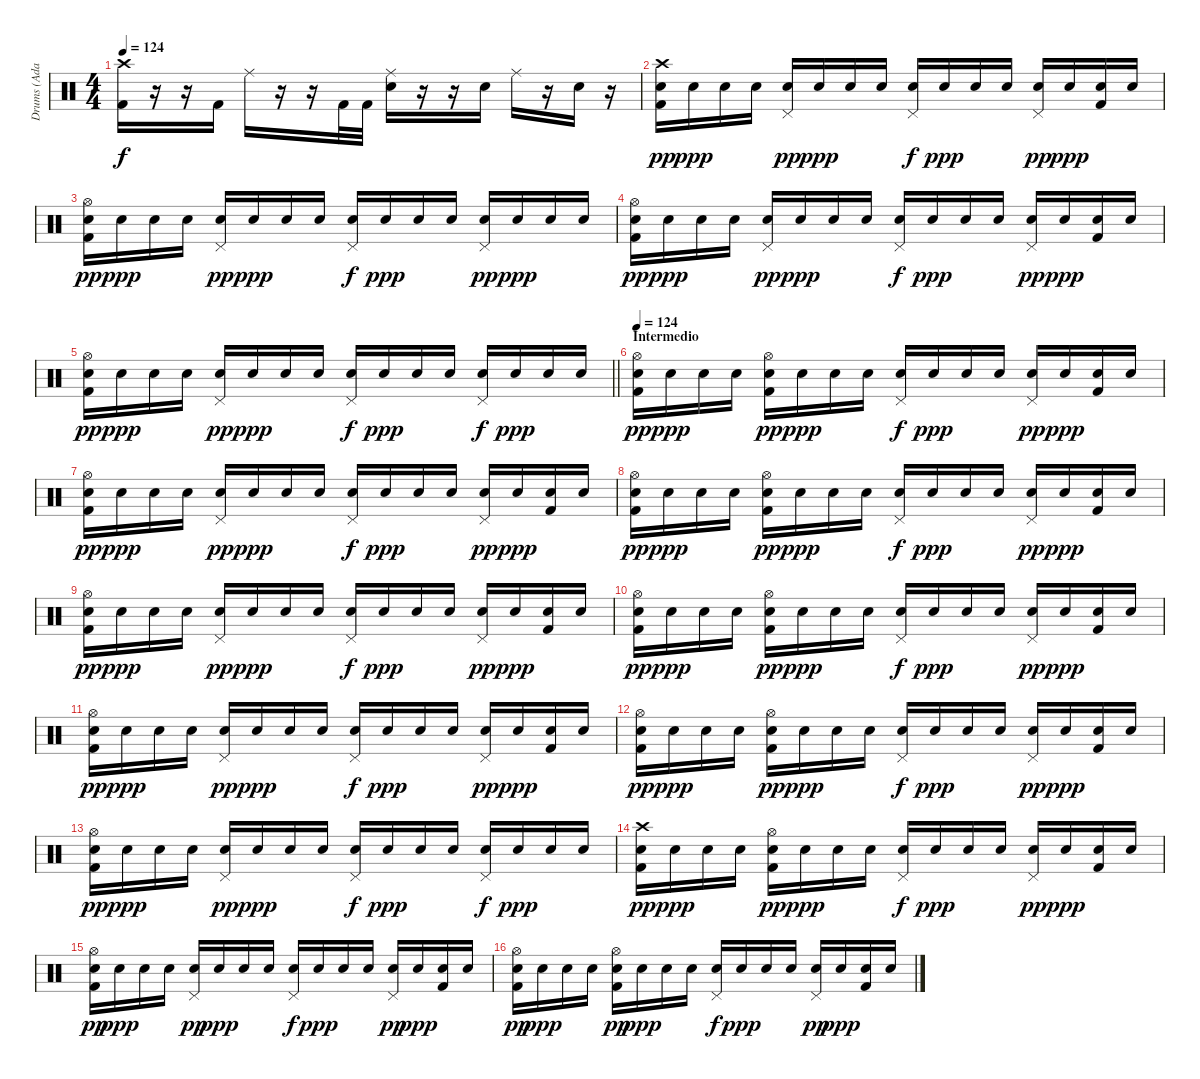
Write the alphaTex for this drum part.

\track ("Drums (Adam Morgan)" "Drums (Ada") {instrument percussion}
\staff {score}
\articulation defaults
\ts (4 4)
\tempo 124
\clef neutral
\ks c
("Crash high (hit)" "Kick (hit) 2").16{dy f} r.16 r.16 "Kick (hit) 2".16 "Ride (middle)".16 r.16 r.16 "Kick (hit) 2".32 "Kick (hit) 2".32 ("Ride (middle)" "Snare (hit) 2").16 r.16 r.16 "Snare (hit) 2".16 "Ride (middle)".16 r.16 "Snare (hit) 2".16 r.16 |
("Crash high (hit)" "Snare (hit) 2" "Kick (hit) 2").16{dy pp} "Snare (hit) 2".16{dy ppp} "Snare (hit) 2".16 "Snare (hit) 2".16 ("Pedal Hi-Hat (hit)" "Snare (hit) 2").16{dy pp} "Snare (hit) 2".16{dy ppp} "Snare (hit) 2".16 "Snare (hit) 2".16 ("Pedal Hi-Hat (hit)" "Snare (hit) 2").16{dy f} "Snare (hit) 2".16{dy ppp} "Snare (hit) 2".16 "Snare (hit) 2".16 ("Pedal Hi-Hat (hit)" "Snare (hit) 2").16{dy pp} "Snare (hit) 2".16{dy ppp} ("Snare (hit) 2" "Kick (hit) 2").16 "Snare (hit) 2".16 |
("Hi-Hat (open)" "Snare (hit) 2" "Kick (hit) 2").16{dy pp} "Snare (hit) 2".16{dy ppp} "Snare (hit) 2".16 "Snare (hit) 2".16 ("Pedal Hi-Hat (hit)" "Snare (hit) 2").16{dy pp} "Snare (hit) 2".16{dy ppp} "Snare (hit) 2".16 "Snare (hit) 2".16 ("Pedal Hi-Hat (hit)" "Snare (hit) 2").16{dy f} "Snare (hit) 2".16{dy ppp} "Snare (hit) 2".16 "Snare (hit) 2".16 ("Pedal Hi-Hat (hit)" "Snare (hit) 2").16{dy pp} "Snare (hit) 2".16{dy ppp} "Snare (hit) 2".16 "Snare (hit) 2".16 |
("Hi-Hat (open)" "Snare (hit) 2" "Kick (hit) 2").16{dy pp} "Snare (hit) 2".16{dy ppp} "Snare (hit) 2".16 "Snare (hit) 2".16 ("Pedal Hi-Hat (hit)" "Snare (hit) 2").16{dy pp} "Snare (hit) 2".16{dy ppp} "Snare (hit) 2".16 "Snare (hit) 2".16 ("Pedal Hi-Hat (hit)" "Snare (hit) 2").16{dy f} "Snare (hit) 2".16{dy ppp} "Snare (hit) 2".16 "Snare (hit) 2".16 ("Pedal Hi-Hat (hit)" "Snare (hit) 2").16{dy pp} "Snare (hit) 2".16{dy ppp} ("Snare (hit) 2" "Kick (hit) 2").16 "Snare (hit) 2".16 |
\barLineRight lightlight
("Hi-Hat (open)" "Snare (hit) 2" "Kick (hit) 2").16{dy pp} "Snare (hit) 2".16{dy ppp} "Snare (hit) 2".16 "Snare (hit) 2".16 ("Pedal Hi-Hat (hit)" "Snare (hit) 2").16{dy pp} "Snare (hit) 2".16{dy ppp} "Snare (hit) 2".16 "Snare (hit) 2".16 ("Pedal Hi-Hat (hit)" "Snare (hit) 2").16{dy f} "Snare (hit) 2".16{dy ppp} "Snare (hit) 2".16 "Snare (hit) 2".16 ("Pedal Hi-Hat (hit)" "Snare (hit) 2").16{dy f} "Snare (hit) 2".16{dy ppp} "Snare (hit) 2".16 "Snare (hit) 2".16 |
\section ("" "Intermedio")
\tempo 124
("Hi-Hat (open)" "Snare (hit) 2" "Kick (hit) 2").16{dy pp} "Snare (hit) 2".16{dy ppp} "Snare (hit) 2".16 "Snare (hit) 2".16 ("Hi-Hat (open)" "Snare (hit) 2" "Kick (hit) 2").16{dy pp} "Snare (hit) 2".16{dy ppp} "Snare (hit) 2".16 "Snare (hit) 2".16 ("Pedal Hi-Hat (hit)" "Snare (hit) 2").16{dy f} "Snare (hit) 2".16{dy ppp} "Snare (hit) 2".16 "Snare (hit) 2".16 ("Pedal Hi-Hat (hit)" "Snare (hit) 2").16{dy pp} "Snare (hit) 2".16{dy ppp} ("Snare (hit) 2" "Kick (hit) 2").16 "Snare (hit) 2".16 |
("Hi-Hat (open)" "Snare (hit) 2" "Kick (hit) 2").16{dy pp} "Snare (hit) 2".16{dy ppp} "Snare (hit) 2".16 "Snare (hit) 2".16 ("Pedal Hi-Hat (hit)" "Snare (hit) 2").16{dy pp} "Snare (hit) 2".16{dy ppp} "Snare (hit) 2".16 "Snare (hit) 2".16 ("Pedal Hi-Hat (hit)" "Snare (hit) 2").16{dy f} "Snare (hit) 2".16{dy ppp} "Snare (hit) 2".16 "Snare (hit) 2".16 ("Pedal Hi-Hat (hit)" "Snare (hit) 2").16{dy pp} "Snare (hit) 2".16{dy ppp} ("Snare (hit) 2" "Kick (hit) 2").16 "Snare (hit) 2".16 |
("Hi-Hat (open)" "Snare (hit) 2" "Kick (hit) 2").16{dy pp} "Snare (hit) 2".16{dy ppp} "Snare (hit) 2".16 "Snare (hit) 2".16 ("Hi-Hat (open)" "Snare (hit) 2" "Kick (hit) 2").16{dy pp} "Snare (hit) 2".16{dy ppp} "Snare (hit) 2".16 "Snare (hit) 2".16 ("Pedal Hi-Hat (hit)" "Snare (hit) 2").16{dy f} "Snare (hit) 2".16{dy ppp} "Snare (hit) 2".16 "Snare (hit) 2".16 ("Pedal Hi-Hat (hit)" "Snare (hit) 2").16{dy pp} "Snare (hit) 2".16{dy ppp} ("Snare (hit) 2" "Kick (hit) 2").16 "Snare (hit) 2".16 |
("Hi-Hat (open)" "Snare (hit) 2" "Kick (hit) 2").16{dy pp} "Snare (hit) 2".16{dy ppp} "Snare (hit) 2".16 "Snare (hit) 2".16 ("Pedal Hi-Hat (hit)" "Snare (hit) 2").16{dy pp} "Snare (hit) 2".16{dy ppp} "Snare (hit) 2".16 "Snare (hit) 2".16 ("Pedal Hi-Hat (hit)" "Snare (hit) 2").16{dy f} "Snare (hit) 2".16{dy ppp} "Snare (hit) 2".16 "Snare (hit) 2".16 ("Pedal Hi-Hat (hit)" "Snare (hit) 2").16{dy pp} "Snare (hit) 2".16{dy ppp} ("Snare (hit) 2" "Kick (hit) 2").16 "Snare (hit) 2".16 |
("Hi-Hat (open)" "Snare (hit) 2" "Kick (hit) 2").16{dy pp} "Snare (hit) 2".16{dy ppp} "Snare (hit) 2".16 "Snare (hit) 2".16 ("Hi-Hat (open)" "Snare (hit) 2" "Kick (hit) 2").16{dy pp} "Snare (hit) 2".16{dy ppp} "Snare (hit) 2".16 "Snare (hit) 2".16 ("Pedal Hi-Hat (hit)" "Snare (hit) 2").16{dy f} "Snare (hit) 2".16{dy ppp} "Snare (hit) 2".16 "Snare (hit) 2".16 ("Pedal Hi-Hat (hit)" "Snare (hit) 2").16{dy pp} "Snare (hit) 2".16{dy ppp} ("Snare (hit) 2" "Kick (hit) 2").16 "Snare (hit) 2".16 |
("Hi-Hat (open)" "Snare (hit) 2" "Kick (hit) 2").16{dy pp} "Snare (hit) 2".16{dy ppp} "Snare (hit) 2".16 "Snare (hit) 2".16 ("Pedal Hi-Hat (hit)" "Snare (hit) 2").16{dy pp} "Snare (hit) 2".16{dy ppp} "Snare (hit) 2".16 "Snare (hit) 2".16 ("Pedal Hi-Hat (hit)" "Snare (hit) 2").16{dy f} "Snare (hit) 2".16{dy ppp} "Snare (hit) 2".16 "Snare (hit) 2".16 ("Pedal Hi-Hat (hit)" "Snare (hit) 2").16{dy pp} "Snare (hit) 2".16{dy ppp} ("Snare (hit) 2" "Kick (hit) 2").16 "Snare (hit) 2".16 |
("Hi-Hat (open)" "Snare (hit) 2" "Kick (hit) 2").16{dy pp} "Snare (hit) 2".16{dy ppp} "Snare (hit) 2".16 "Snare (hit) 2".16 ("Hi-Hat (open)" "Snare (hit) 2" "Kick (hit) 2").16{dy pp} "Snare (hit) 2".16{dy ppp} "Snare (hit) 2".16 "Snare (hit) 2".16 ("Pedal Hi-Hat (hit)" "Snare (hit) 2").16{dy f} "Snare (hit) 2".16{dy ppp} "Snare (hit) 2".16 "Snare (hit) 2".16 ("Pedal Hi-Hat (hit)" "Snare (hit) 2").16{dy pp} "Snare (hit) 2".16{dy ppp} ("Snare (hit) 2" "Kick (hit) 2").16 "Snare (hit) 2".16 |
("Hi-Hat (open)" "Snare (hit) 2" "Kick (hit) 2").16{dy pp} "Snare (hit) 2".16{dy ppp} "Snare (hit) 2".16 "Snare (hit) 2".16 ("Pedal Hi-Hat (hit)" "Snare (hit) 2").16{dy pp} "Snare (hit) 2".16{dy ppp} "Snare (hit) 2".16 "Snare (hit) 2".16 ("Pedal Hi-Hat (hit)" "Snare (hit) 2").16{dy f} "Snare (hit) 2".16{dy ppp} "Snare (hit) 2".16 "Snare (hit) 2".16 ("Pedal Hi-Hat (hit)" "Snare (hit) 2").16{dy f} "Snare (hit) 2".16{dy ppp} "Snare (hit) 2".16 "Snare (hit) 2".16 |
("Crash high (hit)" "Snare (hit) 2" "Kick (hit) 2").16{dy pp} "Snare (hit) 2".16{dy ppp} "Snare (hit) 2".16 "Snare (hit) 2".16 ("Hi-Hat (open)" "Snare (hit) 2" "Kick (hit) 2").16{dy pp} "Snare (hit) 2".16{dy ppp} "Snare (hit) 2".16 "Snare (hit) 2".16 ("Pedal Hi-Hat (hit)" "Snare (hit) 2").16{dy f} "Snare (hit) 2".16{dy ppp} "Snare (hit) 2".16 "Snare (hit) 2".16 ("Pedal Hi-Hat (hit)" "Snare (hit) 2").16{dy pp} "Snare (hit) 2".16{dy ppp} ("Snare (hit) 2" "Kick (hit) 2").16 "Snare (hit) 2".16 |
("Hi-Hat (open)" "Snare (hit) 2" "Kick (hit) 2").16{dy pp} "Snare (hit) 2".16{dy ppp} "Snare (hit) 2".16 "Snare (hit) 2".16 ("Pedal Hi-Hat (hit)" "Snare (hit) 2").16{dy pp} "Snare (hit) 2".16{dy ppp} "Snare (hit) 2".16 "Snare (hit) 2".16 ("Pedal Hi-Hat (hit)" "Snare (hit) 2").16{dy f} "Snare (hit) 2".16{dy ppp} "Snare (hit) 2".16 "Snare (hit) 2".16 ("Pedal Hi-Hat (hit)" "Snare (hit) 2").16{dy pp} "Snare (hit) 2".16{dy ppp} ("Snare (hit) 2" "Kick (hit) 2").16 "Snare (hit) 2".16 |
("Hi-Hat (open)" "Snare (hit) 2" "Kick (hit) 2").16{dy pp} "Snare (hit) 2".16{dy ppp} "Snare (hit) 2".16 "Snare (hit) 2".16 ("Hi-Hat (open)" "Snare (hit) 2" "Kick (hit) 2").16{dy pp} "Snare (hit) 2".16{dy ppp} "Snare (hit) 2".16 "Snare (hit) 2".16 ("Pedal Hi-Hat (hit)" "Snare (hit) 2").16{dy f} "Snare (hit) 2".16{dy ppp} "Snare (hit) 2".16 "Snare (hit) 2".16 ("Pedal Hi-Hat (hit)" "Snare (hit) 2").16{dy pp} "Snare (hit) 2".16{dy ppp} ("Snare (hit) 2" "Kick (hit) 2").16 "Snare (hit) 2".16
